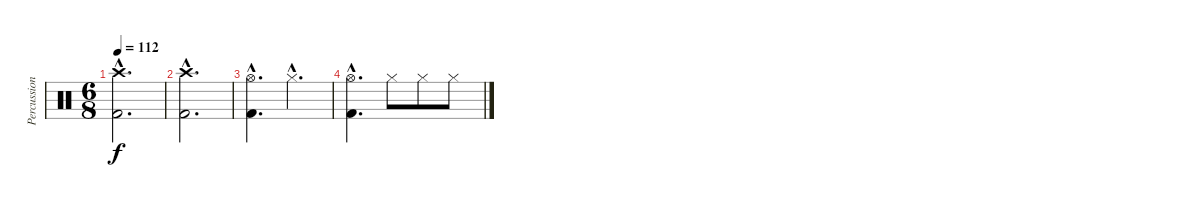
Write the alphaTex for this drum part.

\track ("Percussion" "Percussion") {instrument percussion}
\staff {score}
\articulation defaults
\ts (6 8)
\tempo 112
\clef neutral
\ks c
("Crash high (hit)"{hac} "Kick (hit) 2"{hac}).2{d dy f volume 4} |
("Crash high (hit)"{hac} "Kick (hit) 2"{hac}).2{d} |
("Hi-Hat (open)"{hac} "Kick (hit) 2"{hac}).4{d volume 1} "Hi-Hat (closed)"{hac}.4{d} |
("Hi-Hat (open)"{hac} "Kick (hit) 2"{hac}).4{d} "Hi-Hat (closed)".8 "Hi-Hat (closed)".8 "Hi-Hat (closed)".8
